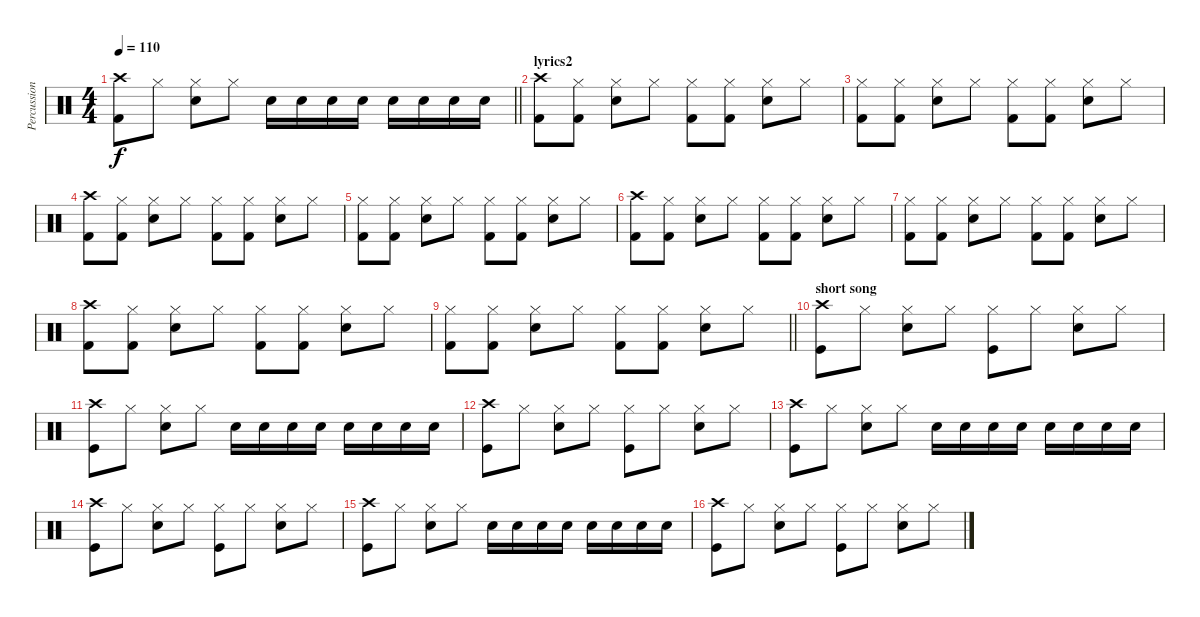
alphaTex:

\track ("Percussion" "Percussion") {instrument percussion}
\staff {score}
\articulation defaults
\ts (4 4)
\tempo 110
\clef neutral
\barLineRight lightlight
\ks c
("Crash high (hit)" "Kick (hit) 2").8{dy f} "Hi-Hat (closed)".8 ("Hi-Hat (closed)" "Electric Snare (hit)").8 "Hi-Hat (closed)".8 "Electric Snare (hit)".16 "Electric Snare (hit)".16 "Electric Snare (hit)".16 "Electric Snare (hit)".16 "Electric Snare (hit)".16 "Electric Snare (hit)".16 "Electric Snare (hit)".16 "Electric Snare (hit)".16 |
\section ("" "lyrics2")
("Crash high (hit)" "Kick (hit) 2").8 ("Hi-Hat (closed)" "Kick (hit) 2").8 ("Hi-Hat (closed)" "Electric Snare (hit)").8 "Hi-Hat (closed)".8 ("Hi-Hat (closed)" "Kick (hit) 2").8 ("Hi-Hat (closed)" "Kick (hit) 2").8 ("Hi-Hat (closed)" "Electric Snare (hit)").8 "Hi-Hat (closed)".8 |
("Hi-Hat (closed)" "Kick (hit) 2").8 ("Hi-Hat (closed)" "Kick (hit) 2").8 ("Hi-Hat (closed)" "Electric Snare (hit)").8 "Hi-Hat (closed)".8 ("Hi-Hat (closed)" "Kick (hit) 2").8 ("Hi-Hat (closed)" "Kick (hit) 2").8 ("Hi-Hat (closed)" "Electric Snare (hit)").8 "Hi-Hat (closed)".8 |
("Crash high (hit)" "Kick (hit) 2").8 ("Hi-Hat (closed)" "Kick (hit) 2").8 ("Hi-Hat (closed)" "Electric Snare (hit)").8 "Hi-Hat (closed)".8 ("Hi-Hat (closed)" "Kick (hit) 2").8 ("Hi-Hat (closed)" "Kick (hit) 2").8 ("Hi-Hat (closed)" "Electric Snare (hit)").8 "Hi-Hat (closed)".8 |
("Hi-Hat (closed)" "Kick (hit) 2").8 ("Hi-Hat (closed)" "Kick (hit) 2").8 ("Hi-Hat (closed)" "Electric Snare (hit)").8 "Hi-Hat (closed)".8 ("Hi-Hat (closed)" "Kick (hit) 2").8 ("Hi-Hat (closed)" "Kick (hit) 2").8 ("Hi-Hat (closed)" "Electric Snare (hit)").8 "Hi-Hat (closed)".8 |
("Crash high (hit)" "Kick (hit) 2").8 ("Hi-Hat (closed)" "Kick (hit) 2").8 ("Hi-Hat (closed)" "Electric Snare (hit)").8 "Hi-Hat (closed)".8 ("Hi-Hat (closed)" "Kick (hit) 2").8 ("Hi-Hat (closed)" "Kick (hit) 2").8 ("Hi-Hat (closed)" "Electric Snare (hit)").8 "Hi-Hat (closed)".8 |
("Hi-Hat (closed)" "Kick (hit) 2").8 ("Hi-Hat (closed)" "Kick (hit) 2").8 ("Hi-Hat (closed)" "Electric Snare (hit)").8 "Hi-Hat (closed)".8 ("Hi-Hat (closed)" "Kick (hit) 2").8 ("Hi-Hat (closed)" "Kick (hit) 2").8 ("Hi-Hat (closed)" "Electric Snare (hit)").8 "Hi-Hat (closed)".8 |
("Crash high (hit)" "Kick (hit) 2").8 ("Hi-Hat (closed)" "Kick (hit) 2").8 ("Hi-Hat (closed)" "Electric Snare (hit)").8 "Hi-Hat (closed)".8 ("Hi-Hat (closed)" "Kick (hit) 2").8 ("Hi-Hat (closed)" "Kick (hit) 2").8 ("Hi-Hat (closed)" "Electric Snare (hit)").8 "Hi-Hat (closed)".8 |
\barLineRight lightlight
("Hi-Hat (closed)" "Kick (hit) 2").8 ("Hi-Hat (closed)" "Kick (hit) 2").8 ("Hi-Hat (closed)" "Electric Snare (hit)").8 "Hi-Hat (closed)".8 ("Hi-Hat (closed)" "Kick (hit) 2").8 ("Hi-Hat (closed)" "Kick (hit) 2").8 ("Hi-Hat (closed)" "Electric Snare (hit)").8 "Hi-Hat (closed)".8 |
\section ("" "short song")
("Crash high (hit)" "Kick (hit)").8 "Hi-Hat (closed)".8 ("Hi-Hat (closed)" "Electric Snare (hit)").8 "Hi-Hat (closed)".8 ("Hi-Hat (closed)" "Kick (hit)").8 "Hi-Hat (closed)".8 ("Hi-Hat (closed)" "Electric Snare (hit)").8 "Hi-Hat (closed)".8 |
("Crash high (hit)" "Kick (hit)").8 "Hi-Hat (closed)".8 ("Hi-Hat (closed)" "Electric Snare (hit)").8 "Hi-Hat (closed)".8 "Electric Snare (hit)".16 "Electric Snare (hit)".16 "Electric Snare (hit)".16 "Electric Snare (hit)".16 "Electric Snare (hit)".16 "Electric Snare (hit)".16 "Electric Snare (hit)".16 "Electric Snare (hit)".16 |
("Crash high (hit)" "Kick (hit)").8 "Hi-Hat (closed)".8 ("Hi-Hat (closed)" "Electric Snare (hit)").8 "Hi-Hat (closed)".8 ("Hi-Hat (closed)" "Kick (hit)").8 "Hi-Hat (closed)".8 ("Hi-Hat (closed)" "Electric Snare (hit)").8 "Hi-Hat (closed)".8 |
("Crash high (hit)" "Kick (hit)").8 "Hi-Hat (closed)".8 ("Hi-Hat (closed)" "Electric Snare (hit)").8 "Hi-Hat (closed)".8 "Electric Snare (hit)".16 "Electric Snare (hit)".16 "Electric Snare (hit)".16 "Electric Snare (hit)".16 "Electric Snare (hit)".16 "Electric Snare (hit)".16 "Electric Snare (hit)".16 "Electric Snare (hit)".16 |
("Crash high (hit)" "Kick (hit)").8 "Hi-Hat (closed)".8 ("Hi-Hat (closed)" "Electric Snare (hit)").8 "Hi-Hat (closed)".8 ("Hi-Hat (closed)" "Kick (hit)").8 "Hi-Hat (closed)".8 ("Hi-Hat (closed)" "Electric Snare (hit)").8 "Hi-Hat (closed)".8 |
("Crash high (hit)" "Kick (hit)").8 "Hi-Hat (closed)".8 ("Hi-Hat (closed)" "Electric Snare (hit)").8 "Hi-Hat (closed)".8 "Electric Snare (hit)".16 "Electric Snare (hit)".16 "Electric Snare (hit)".16 "Electric Snare (hit)".16 "Electric Snare (hit)".16 "Electric Snare (hit)".16 "Electric Snare (hit)".16 "Electric Snare (hit)".16 |
("Crash high (hit)" "Kick (hit)").8 "Hi-Hat (closed)".8 ("Hi-Hat (closed)" "Electric Snare (hit)").8 "Hi-Hat (closed)".8 ("Hi-Hat (closed)" "Kick (hit)").8 "Hi-Hat (closed)".8 ("Hi-Hat (closed)" "Electric Snare (hit)").8 "Hi-Hat (closed)".8
